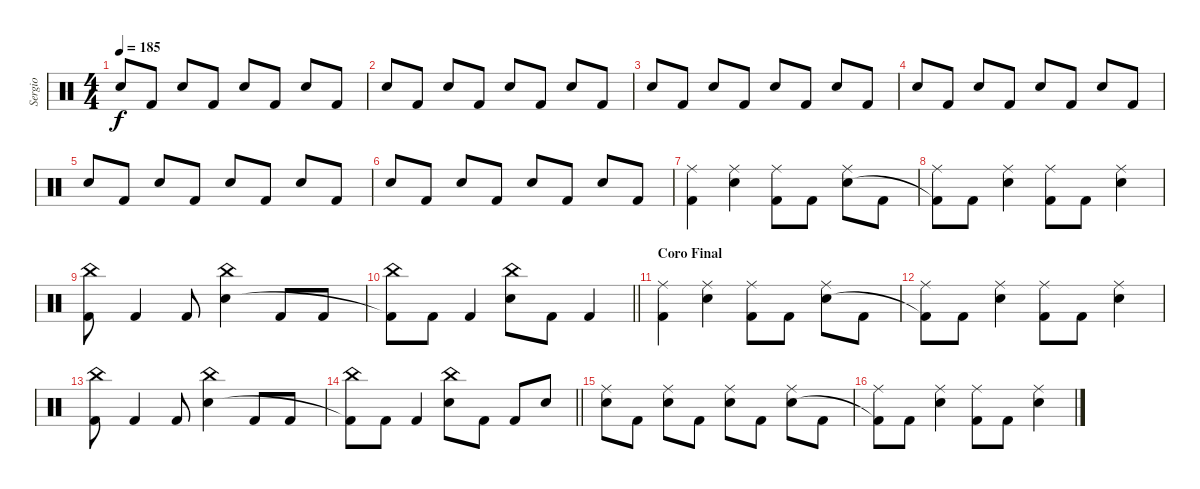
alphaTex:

\track ("Sergio" "Sergio") {instrument percussion}
\staff {score}
\articulation defaults
\ts (4 4)
\tempo 185
\clef neutral
\ks c "Electric Snare (hit)".8{dy f} "Kick (hit) 2".8 "Electric Snare (hit)".8 "Kick (hit) 2".8 "Electric Snare (hit)".8 "Kick (hit) 2".8 "Electric Snare (hit)".8 "Kick (hit) 2".8
|
"Electric Snare (hit)".8 "Kick (hit) 2".8 "Electric Snare (hit)".8 "Kick (hit) 2".8 "Electric Snare (hit)".8 "Kick (hit) 2".8 "Electric Snare (hit)".8 "Kick (hit) 2".8 |
"Electric Snare (hit)".8 "Kick (hit) 2".8 "Electric Snare (hit)".8 "Kick (hit) 2".8 "Electric Snare (hit)".8 "Kick (hit) 2".8 "Electric Snare (hit)".8 "Kick (hit) 2".8 |
"Electric Snare (hit)".8 "Kick (hit) 2".8 "Electric Snare (hit)".8 "Kick (hit) 2".8 "Electric Snare (hit)".8 "Kick (hit) 2".8 "Electric Snare (hit)".8 "Kick (hit) 2".8 |
"Electric Snare (hit)".8 "Kick (hit) 2".8 "Electric Snare (hit)".8 "Kick (hit) 2".8 "Electric Snare (hit)".8 "Kick (hit) 2".8 "Electric Snare (hit)".8 "Kick (hit) 2".8 |
"Electric Snare (hit)".8 "Kick (hit) 2".8 "Electric Snare (hit)".8 "Kick (hit) 2".8 "Electric Snare (hit)".8 "Kick (hit) 2".8 "Electric Snare (hit)".8 "Kick (hit) 2".8 |
("Ride (middle)" "Kick (hit) 2").4 ("Ride (middle)" "Electric Snare (hit)").4 ("Ride (middle)" "Kick (hit) 2").8 "Kick (hit) 2".8 ("Ride (middle)" "Electric Snare (hit)").8 "Kick (hit) 2".8 |
("Ride (middle)" "Kick (hit) 2"{t}).8 "Kick (hit) 2".8 ("Ride (middle)" "Electric Snare (hit)").4 ("Ride (middle)" "Kick (hit) 2").8 "Kick (hit) 2".8 ("Ride (middle)" "Electric Snare (hit)").4 |
("China (hit)" "Kick (hit) 2").8 "Kick (hit) 2".4 "Kick (hit) 2".8 ("China (hit)" "Electric Snare (hit)").4 "Kick (hit) 2".8 "Kick (hit) 2".8 |
\barLineRight lightlight
("China (hit)" "Kick (hit) 2"{t}).8 "Kick (hit) 2".8 "Kick (hit) 2".4 ("China (hit)" "Electric Snare (hit)").8 "Kick (hit) 2".8 "Kick (hit) 2".4 |
\section ("" "Coro Final")
("Ride (middle)" "Kick (hit) 2").4 ("Ride (middle)" "Electric Snare (hit)").4 ("Ride (middle)" "Kick (hit) 2").8 "Kick (hit) 2".8 ("Ride (middle)" "Electric Snare (hit)").8 "Kick (hit) 2".8 |
("Ride (middle)" "Kick (hit) 2"{t}).8 "Kick (hit) 2".8 ("Ride (middle)" "Electric Snare (hit)").4 ("Ride (middle)" "Kick (hit) 2").8 "Kick (hit) 2".8 ("Ride (middle)" "Electric Snare (hit)").4 |
("China (hit)" "Kick (hit) 2").8 "Kick (hit) 2".4 "Kick (hit) 2".8 ("China (hit)" "Electric Snare (hit)").4 "Kick (hit) 2".8 "Kick (hit) 2".8 |
\barLineRight lightlight
("China (hit)" "Kick (hit) 2"{t}).8 "Kick (hit) 2".8 "Kick (hit) 2".4 ("China (hit)" "Electric Snare (hit)").8 "Kick (hit) 2".8 "Kick (hit) 2".8 "Electric Snare (hit)".8 |
("Ride (middle)" "Electric Snare (hit)").8 "Kick (hit) 2".8 ("Ride (middle)" "Electric Snare (hit)").8 "Kick (hit) 2".8 ("Ride (middle)" "Electric Snare (hit)").8 "Kick (hit) 2".8 ("Ride (middle)" "Electric Snare (hit)").8 "Kick (hit) 2".8 |
("Ride (middle)" "Kick (hit) 2"{t}).8 "Kick (hit) 2".8 ("Ride (middle)" "Electric Snare (hit)").4 ("Ride (middle)" "Kick (hit) 2").8 "Kick (hit) 2".8 ("Ride (middle)" "Electric Snare (hit)").4
